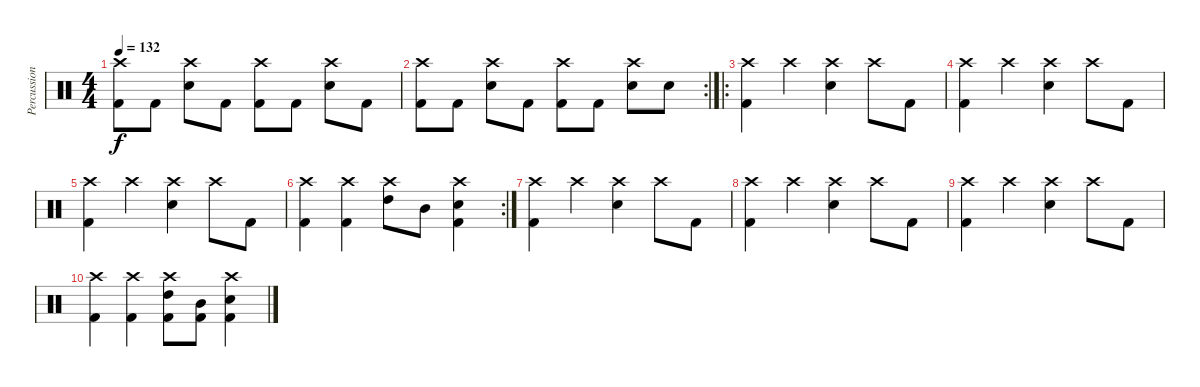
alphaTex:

\track ("Percussion" "Percussion") {instrument percussion}
\staff {score}
\articulation defaults
\ts (4 4)
\tempo 132
\clef neutral
\ks c
("Crash high (hit)" "Kick (hit) 2").8{dy f} "Kick (hit) 2".8 ("Crash high (hit)" "Electric Snare (hit)").8 "Kick (hit) 2".8 ("Crash high (hit)" "Kick (hit) 2").8 "Kick (hit) 2".8 ("Crash high (hit)" "Electric Snare (hit)").8 "Kick (hit) 2".8 |
\rc 2
("Crash high (hit)" "Kick (hit) 2").8 "Kick (hit) 2".8 ("Crash high (hit)" "Electric Snare (hit)").8 "Kick (hit) 2".8 ("Crash high (hit)" "Kick (hit) 2").8 "Kick (hit) 2".8 ("Crash high (hit)" "Electric Snare (hit)").8 "Electric Snare (hit)".8 |
\ro
("Crash high (hit)" "Kick (hit) 2").4 "Crash high (hit)".4 ("Crash high (hit)" "Electric Snare (hit)").4 "Crash high (hit)".8 "Kick (hit) 2".8 |
("Crash high (hit)" "Kick (hit) 2").4 "Crash high (hit)".4 ("Crash high (hit)" "Electric Snare (hit)").4 "Crash high (hit)".8 "Kick (hit) 2".8 |
("Crash high (hit)" "Kick (hit) 2").4 "Crash high (hit)".4 ("Crash high (hit)" "Electric Snare (hit)").4 "Crash high (hit)".8 "Kick (hit) 2".8 |
\rc 2
("Crash high (hit)" "Kick (hit) 2").4 ("Crash high (hit)" "Kick (hit) 2").4 ("Crash high (hit)" "High Tom (hit)").8 "Mid Tom (hit)".8 ("Crash high (hit)" "Electric Snare (hit)" "Kick (hit) 2").4 |
("Crash high (hit)" "Kick (hit) 2").4 "Crash high (hit)".4 ("Crash high (hit)" "Electric Snare (hit)").4 "Crash high (hit)".8 "Kick (hit) 2".8 |
("Crash high (hit)" "Kick (hit) 2").4 "Crash high (hit)".4 ("Crash high (hit)" "Electric Snare (hit)").4 "Crash high (hit)".8 "Kick (hit) 2".8 |
("Crash high (hit)" "Kick (hit) 2").4 "Crash high (hit)".4 ("Crash high (hit)" "Electric Snare (hit)").4 "Crash high (hit)".8 "Kick (hit) 2".8 |
("Crash high (hit)" "Kick (hit) 2").4 ("Crash high (hit)" "Kick (hit) 2").4 ("Crash high (hit)" "High Tom (hit)" "Kick (hit) 2").8 ("Mid Tom (hit)" "Kick (hit) 2").8 ("Crash high (hit)" "Electric Snare (hit)" "Kick (hit) 2").4
